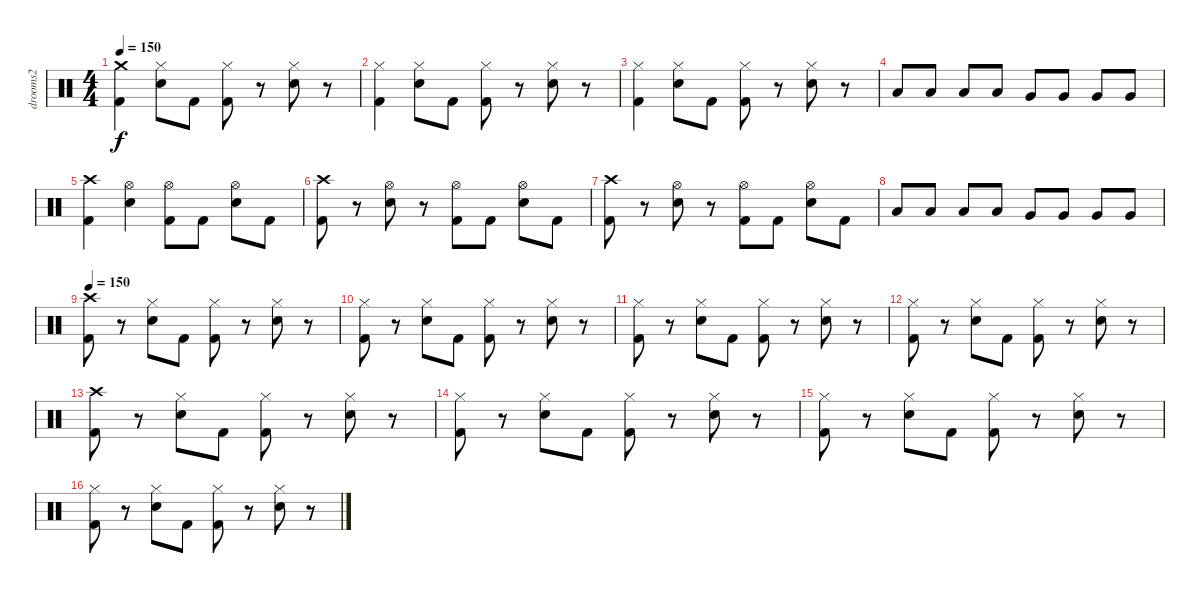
\track ("drooms2" "drooms2") {instrument percussion}
\staff {score}
\articulation defaults
\ts (4 4)
\tempo 150
\clef neutral
\ks c
("Crash medium (hit)" "Kick (hit) 2").4{dy f} ("Hi-Hat (closed)" "Snare (hit) 2").8 "Kick (hit) 2".8 ("Hi-Hat (closed)" "Kick (hit) 2").8 r.8 ("Hi-Hat (closed)" "Snare (hit) 2").8 r.8 |
("Hi-Hat (closed)" "Kick (hit) 2").4 ("Hi-Hat (closed)" "Snare (hit) 2").8 "Kick (hit) 2".8 ("Hi-Hat (closed)" "Kick (hit) 2").8 r.8 ("Hi-Hat (closed)" "Snare (hit) 2").8 r.8 |
("Hi-Hat (closed)" "Kick (hit) 2").4 ("Hi-Hat (closed)" "Snare (hit) 2").8 "Kick (hit) 2".8 ("Hi-Hat (closed)" "Kick (hit) 2").8 r.8 ("Hi-Hat (closed)" "Snare (hit) 2").8 r.8 |
"Low Tom (hit)".8 "Low Tom (hit)".8 "Low Tom (hit)".8 "Low Tom (hit)".8 "Very Low Tom (hit)".8 "Very Low Tom (hit)".8 "Very Low Tom (hit)".8 "Very Low Tom (hit)".8 |
("Crash high (hit)" "Kick (hit) 2").4 ("Hi-Hat (open)" "Snare (hit) 2").4 ("Hi-Hat (open)" "Kick (hit) 2").8 "Kick (hit) 2".8 ("Hi-Hat (open)" "Snare (hit) 2").8 "Kick (hit) 2".8 |
("Crash high (hit)" "Kick (hit) 2").8 r.8 ("Hi-Hat (open)" "Snare (hit) 2").8 r.8 ("Hi-Hat (open)" "Kick (hit) 2").8 "Kick (hit) 2".8 ("Hi-Hat (open)" "Snare (hit) 2").8 "Kick (hit) 2".8 |
("Crash high (hit)" "Kick (hit) 2").8 r.8 ("Hi-Hat (open)" "Snare (hit) 2").8 r.8 ("Hi-Hat (open)" "Kick (hit) 2").8 "Kick (hit) 2".8 ("Hi-Hat (open)" "Snare (hit) 2").8 "Kick (hit) 2".8 |
"Low Tom (hit)".8 "Low Tom (hit)".8 "Low Tom (hit)".8 "Low Tom (hit)".8 "Very Low Tom (hit)".8 "Very Low Tom (hit)".8 "Very Low Tom (hit)".8 "Very Low Tom (hit)".8 |
\tempo 150
("Kick (hit) 2" "Crash high (hit)").8 r.8 ("Hi-Hat (closed)" "Snare (hit) 2").8 "Kick (hit) 2".8 ("Hi-Hat (closed)" "Kick (hit) 2").8 r.8 ("Hi-Hat (closed)" "Snare (hit) 2").8 r.8 |
("Kick (hit) 2" "Hi-Hat (closed)").8 r.8 ("Snare (hit) 2" "Hi-Hat (closed)").8 "Kick (hit) 2".8 ("Kick (hit) 2" "Hi-Hat (closed)").8 r.8 ("Snare (hit) 2" "Hi-Hat (closed)").8 r.8 |
("Kick (hit) 2" "Hi-Hat (closed)").8 r.8 ("Snare (hit) 2" "Hi-Hat (closed)").8 "Kick (hit) 2".8 ("Kick (hit) 2" "Hi-Hat (closed)").8 r.8 ("Snare (hit) 2" "Hi-Hat (closed)").8 r.8 |
("Kick (hit) 2" "Hi-Hat (closed)").8 r.8 ("Snare (hit) 2" "Hi-Hat (closed)").8 "Kick (hit) 2".8 ("Kick (hit) 2" "Hi-Hat (closed)").8 r.8 ("Snare (hit) 2" "Hi-Hat (closed)").8 r.8 |
("Kick (hit) 2" "Crash high (hit)").8 r.8 ("Hi-Hat (closed)" "Snare (hit) 2").8 "Kick (hit) 2".8 ("Hi-Hat (closed)" "Kick (hit) 2").8 r.8 ("Hi-Hat (closed)" "Snare (hit) 2").8 r.8 |
("Kick (hit) 2" "Hi-Hat (closed)").8 r.8 ("Snare (hit) 2" "Hi-Hat (closed)").8 "Kick (hit) 2".8 ("Kick (hit) 2" "Hi-Hat (closed)").8 r.8 ("Snare (hit) 2" "Hi-Hat (closed)").8 r.8 |
("Kick (hit) 2" "Hi-Hat (closed)").8 r.8 ("Snare (hit) 2" "Hi-Hat (closed)").8 "Kick (hit) 2".8 ("Kick (hit) 2" "Hi-Hat (closed)").8 r.8 ("Snare (hit) 2" "Hi-Hat (closed)").8 r.8 |
("Kick (hit) 2" "Hi-Hat (closed)").8 r.8 ("Snare (hit) 2" "Hi-Hat (closed)").8 "Kick (hit) 2".8 ("Kick (hit) 2" "Hi-Hat (closed)").8 r.8 ("Snare (hit) 2" "Hi-Hat (closed)").8 r.8
